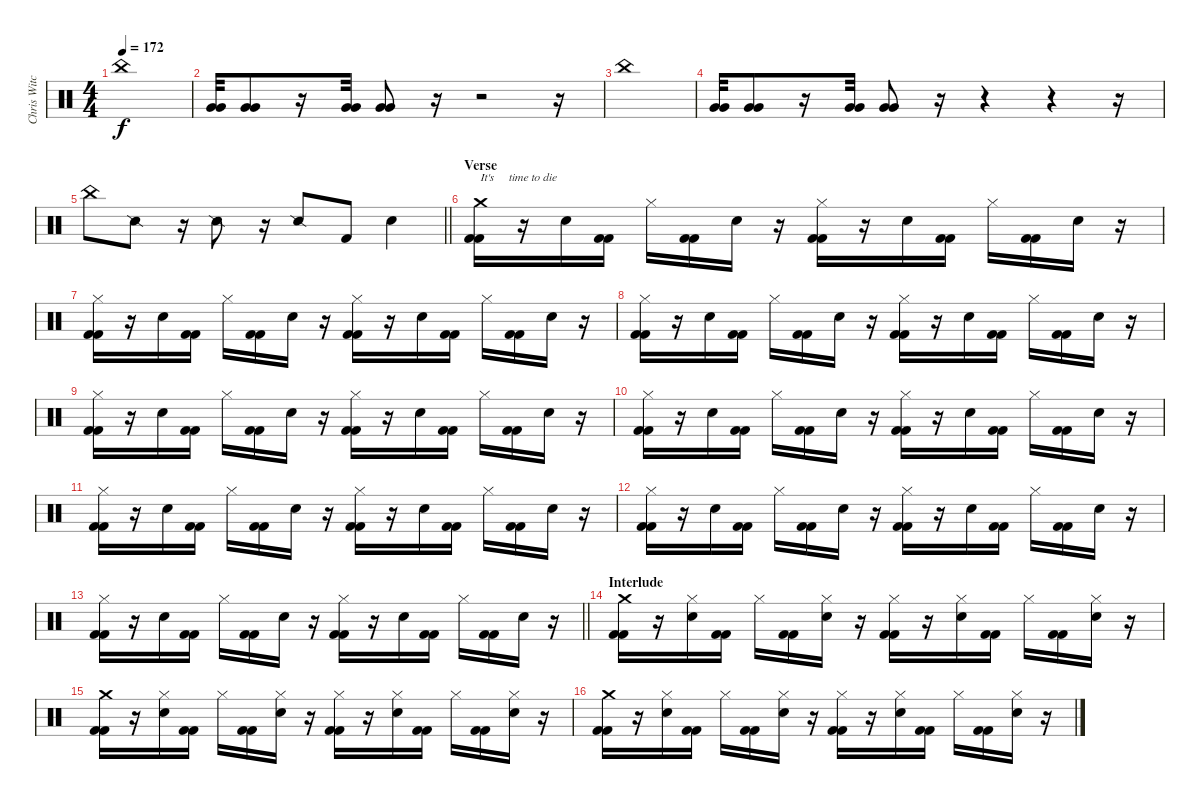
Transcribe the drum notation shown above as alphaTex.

\track ("Chris Witchhunter" "Chris Witc") {instrument percussion}
\staff {score}
\articulation defaults
\ts (4 4)
\tempo 172
\clef neutral
\ks c "China (hit)".1{dy f}
|
("Very Low Tom (hit)" "Very Low Tom (hit)").32 ("Very Low Tom (hit)" "Very Low Tom (hit)").8 r.16 ("Very Low Tom (hit)" "Very Low Tom (hit)").32 ("Very Low Tom (hit)" "Very Low Tom (hit)").8 r.16 r.2 r.16 |
"China (hit)".1 |
("Very Low Tom (hit)" "Very Low Tom (hit)").32 ("Very Low Tom (hit)" "Very Low Tom (hit)").8 r.16 ("Very Low Tom (hit)" "Very Low Tom (hit)").32 ("Very Low Tom (hit)" "Very Low Tom (hit)").8 r.16 r.4 r.4 r.16 |
\barLineRight lightlight "China (hit)".8 "Snare (side stick) 2".8
r.16 "Snare (side stick) 2".8 r.16 "Snare (side stick) 2".8 "Kick (hit) 2".8 "Snare (hit) 2".4 |
\section ("" "Verse")
("Kick (hit) 2" "Kick (hit) 2" "Crash medium (hit)").16{txt "It's     time to die"} r.16 "Snare (hit) 2".16 ("Kick (hit) 2" "Kick (hit) 2").16 "Hi-Hat (closed)".16 ("Kick (hit) 2" "Kick (hit) 2").16 "Snare (hit) 2".16 r.16 ("Kick (hit) 2" "Kick (hit) 2" "Hi-Hat (closed)").16 r.16 "Snare (hit) 2".16 ("Kick (hit) 2" "Kick (hit) 2").16 "Hi-Hat (closed)".16 ("Kick (hit) 2" "Kick (hit) 2").16 "Snare (hit) 2".16 r.16 |
("Kick (hit) 2" "Kick (hit) 2" "Hi-Hat (closed)").16 r.16 "Snare (hit) 2".16 ("Kick (hit) 2" "Kick (hit) 2").16 "Hi-Hat (closed)".16 ("Kick (hit) 2" "Kick (hit) 2").16 "Snare (hit) 2".16 r.16 ("Kick (hit) 2" "Kick (hit) 2" "Hi-Hat (closed)").16 r.16 "Snare (hit) 2".16 ("Kick (hit) 2" "Kick (hit) 2").16 "Hi-Hat (closed)".16 ("Kick (hit) 2" "Kick (hit) 2").16 "Snare (hit) 2".16 r.16 |
("Kick (hit) 2" "Kick (hit) 2" "Hi-Hat (closed)").16 r.16 "Snare (hit) 2".16 ("Kick (hit) 2" "Kick (hit) 2").16 "Hi-Hat (closed)".16 ("Kick (hit) 2" "Kick (hit) 2").16 "Snare (hit) 2".16 r.16 ("Kick (hit) 2" "Kick (hit) 2" "Hi-Hat (closed)").16 r.16 "Snare (hit) 2".16 ("Kick (hit) 2" "Kick (hit) 2").16 "Hi-Hat (closed)".16 ("Kick (hit) 2" "Kick (hit) 2").16 "Snare (hit) 2".16 r.16 |
("Kick (hit) 2" "Kick (hit) 2" "Hi-Hat (closed)").16 r.16 "Snare (hit) 2".16 ("Kick (hit) 2" "Kick (hit) 2").16 "Hi-Hat (closed)".16 ("Kick (hit) 2" "Kick (hit) 2").16 "Snare (hit) 2".16 r.16 ("Kick (hit) 2" "Kick (hit) 2" "Hi-Hat (closed)").16 r.16 "Snare (hit) 2".16 ("Kick (hit) 2" "Kick (hit) 2").16 "Hi-Hat (closed)".16 ("Kick (hit) 2" "Kick (hit) 2").16 "Snare (hit) 2".16 r.16 |
("Kick (hit) 2" "Kick (hit) 2" "Hi-Hat (closed)").16 r.16 "Snare (hit) 2".16 ("Kick (hit) 2" "Kick (hit) 2").16 "Hi-Hat (closed)".16 ("Kick (hit) 2" "Kick (hit) 2").16 "Snare (hit) 2".16 r.16 ("Kick (hit) 2" "Kick (hit) 2" "Hi-Hat (closed)").16 r.16 "Snare (hit) 2".16 ("Kick (hit) 2" "Kick (hit) 2").16 "Hi-Hat (closed)".16 ("Kick (hit) 2" "Kick (hit) 2").16 "Snare (hit) 2".16 r.16 |
("Kick (hit) 2" "Kick (hit) 2" "Hi-Hat (closed)").16 r.16 "Snare (hit) 2".16 ("Kick (hit) 2" "Kick (hit) 2").16 "Hi-Hat (closed)".16 ("Kick (hit) 2" "Kick (hit) 2").16 "Snare (hit) 2".16 r.16 ("Kick (hit) 2" "Kick (hit) 2" "Hi-Hat (closed)").16 r.16 "Snare (hit) 2".16 ("Kick (hit) 2" "Kick (hit) 2").16 "Hi-Hat (closed)".16 ("Kick (hit) 2" "Kick (hit) 2").16 "Snare (hit) 2".16 r.16 |
("Kick (hit) 2" "Kick (hit) 2" "Hi-Hat (closed)").16 r.16 "Snare (hit) 2".16 ("Kick (hit) 2" "Kick (hit) 2").16 "Hi-Hat (closed)".16 ("Kick (hit) 2" "Kick (hit) 2").16 "Snare (hit) 2".16 r.16 ("Kick (hit) 2" "Kick (hit) 2" "Hi-Hat (closed)").16 r.16 "Snare (hit) 2".16 ("Kick (hit) 2" "Kick (hit) 2").16 "Hi-Hat (closed)".16 ("Kick (hit) 2" "Kick (hit) 2").16 "Snare (hit) 2".16 r.16 |
\barLineRight lightlight
("Kick (hit) 2" "Kick (hit) 2" "Hi-Hat (closed)").16 r.16 "Snare (hit) 2".16 ("Kick (hit) 2" "Kick (hit) 2").16 "Hi-Hat (closed)".16 ("Kick (hit) 2" "Kick (hit) 2").16 "Snare (hit) 2".16 r.16 ("Kick (hit) 2" "Kick (hit) 2" "Hi-Hat (closed)").16 r.16 "Snare (hit) 2".16 ("Kick (hit) 2" "Kick (hit) 2").16 "Hi-Hat (closed)".16 ("Kick (hit) 2" "Kick (hit) 2").16 "Snare (hit) 2".16 r.16 |
\section ("" "Interlude")
("Kick (hit) 2" "Kick (hit) 2" "Crash medium (hit)").16 r.16 ("Snare (hit) 2" "Hi-Hat (closed)").16 ("Kick (hit) 2" "Kick (hit) 2").16 "Hi-Hat (closed)".16 ("Kick (hit) 2" "Kick (hit) 2").16 ("Snare (hit) 2" "Hi-Hat (closed)").16 r.16 ("Kick (hit) 2" "Kick (hit) 2" "Hi-Hat (closed)").16 r.16 ("Snare (hit) 2" "Hi-Hat (closed)").16 ("Kick (hit) 2" "Kick (hit) 2").16 "Hi-Hat (closed)".16 ("Kick (hit) 2" "Kick (hit) 2").16 ("Snare (hit) 2" "Hi-Hat (closed)").16 r.16 |
("Kick (hit) 2" "Kick (hit) 2" "Crash medium (hit)").16 r.16 ("Snare (hit) 2" "Hi-Hat (closed)").16 ("Kick (hit) 2" "Kick (hit) 2").16 "Hi-Hat (closed)".16 ("Kick (hit) 2" "Kick (hit) 2").16 ("Snare (hit) 2" "Hi-Hat (closed)").16 r.16 ("Kick (hit) 2" "Kick (hit) 2" "Hi-Hat (closed)").16 r.16 ("Snare (hit) 2" "Hi-Hat (closed)").16 ("Kick (hit) 2" "Kick (hit) 2").16 "Hi-Hat (closed)".16 ("Kick (hit) 2" "Kick (hit) 2").16 ("Snare (hit) 2" "Hi-Hat (closed)").16 r.16 |
("Kick (hit) 2" "Kick (hit) 2" "Crash medium (hit)").16 r.16 ("Snare (hit) 2" "Hi-Hat (closed)").16 ("Kick (hit) 2" "Kick (hit) 2").16 "Hi-Hat (closed)".16 ("Kick (hit) 2" "Kick (hit) 2").16 ("Snare (hit) 2" "Hi-Hat (closed)").16 r.16 ("Kick (hit) 2" "Kick (hit) 2" "Hi-Hat (closed)").16 r.16 ("Snare (hit) 2" "Hi-Hat (closed)").16 ("Kick (hit) 2" "Kick (hit) 2").16 "Hi-Hat (closed)".16 ("Kick (hit) 2" "Kick (hit) 2").16 ("Snare (hit) 2" "Hi-Hat (closed)").16 r.16
